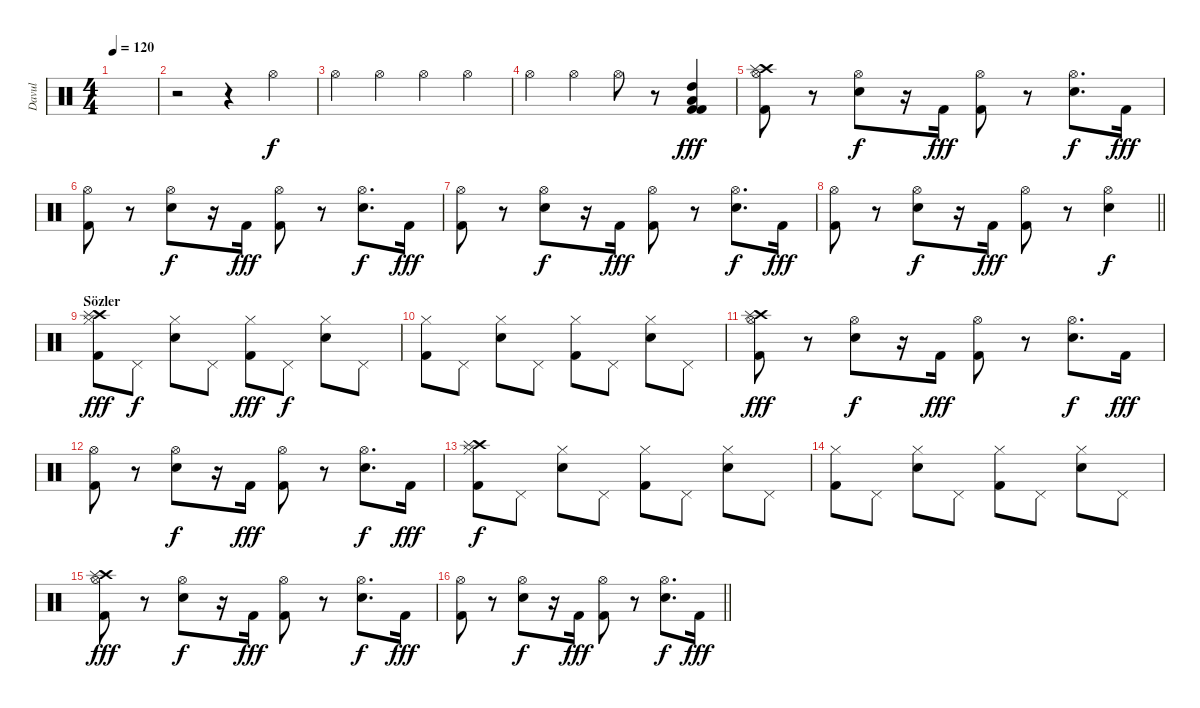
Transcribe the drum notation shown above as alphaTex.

\track ("Davul" "Davul") {instrument percussion}
\staff {score}
\articulation defaults
\ts (4 4)
\tempo 120
\clef neutral
\ks c
|
r.2 r.4 "Hi-Hat (open)".4 |
"Hi-Hat (open)".4 "Hi-Hat (open)".4 "Hi-Hat (open)".4 "Hi-Hat (open)".4 |
"Hi-Hat (open)".4 "Hi-Hat (open)".4 "Hi-Hat (open)".8 r.8 ("Kick (hit) 2" "Kick (hit) 2" "Low Tom (hit)" "High Tom (hit)").4{dy fff} |
("Hi-Hat (open)" "Kick (hit) 2" "Crash high (hit)" "Splash (hit)").8 r.8 ("Hi-Hat (open)" "Snare (hit) 2").8{dy f} r.16 "Kick (hit) 2".16{dy fff} ("Hi-Hat (open)" "Kick (hit) 2").8 r.8 ("Hi-Hat (open)" "Snare (hit) 2").8{d dy f} "Kick (hit) 2".16{dy fff} |
("Hi-Hat (open)" "Kick (hit) 2").8 r.8 ("Hi-Hat (open)" "Snare (hit) 2").8{dy f} r.16 "Kick (hit) 2".16{dy fff} ("Hi-Hat (open)" "Kick (hit) 2").8 r.8 ("Hi-Hat (open)" "Snare (hit) 2").8{d dy f} "Kick (hit) 2".16{dy fff} |
("Hi-Hat (open)" "Kick (hit) 2").8 r.8 ("Hi-Hat (open)" "Snare (hit) 2").8{dy f} r.16 "Kick (hit) 2".16{dy fff} ("Hi-Hat (open)" "Kick (hit) 2").8 r.8 ("Hi-Hat (open)" "Snare (hit) 2").8{d dy f} "Kick (hit) 2".16{dy fff} |
\barLineRight lightlight
("Hi-Hat (open)" "Kick (hit) 2").8 r.8 ("Hi-Hat (open)" "Snare (hit) 2").8{dy f} r.16 "Kick (hit) 2".16{dy fff} ("Hi-Hat (open)" "Kick (hit) 2").8 r.8 ("Hi-Hat (open)" "Snare (hit) 2").4{dy f} |
\section ("" "Sözler")
("Hi-Hat (closed)" "Kick (hit) 2" "Crash high (hit)" "Splash (hit)").8{dy fff} "Pedal Hi-Hat (hit)".8{dy f} ("Hi-Hat (closed)" "Snare (hit) 2").8 "Pedal Hi-Hat (hit)".8 ("Hi-Hat (closed)" "Kick (hit) 2").8{dy fff} "Pedal Hi-Hat (hit)".8{dy f} ("Hi-Hat (closed)" "Snare (hit) 2").8 "Pedal Hi-Hat (hit)".8 |
("Hi-Hat (closed)" "Kick (hit) 2").8 "Pedal Hi-Hat (hit)".8 ("Hi-Hat (closed)" "Snare (hit) 2").8 "Pedal Hi-Hat (hit)".8 ("Hi-Hat (closed)" "Kick (hit) 2").8 "Pedal Hi-Hat (hit)".8 ("Hi-Hat (closed)" "Snare (hit) 2").8 "Pedal Hi-Hat (hit)".8 |
("Hi-Hat (open)" "Kick (hit) 2" "Crash high (hit)" "Splash (hit)").8{dy fff} r.8 ("Hi-Hat (open)" "Snare (hit) 2").8{dy f} r.16 "Kick (hit) 2".16{dy fff} ("Hi-Hat (open)" "Kick (hit) 2").8 r.8 ("Hi-Hat (open)" "Snare (hit) 2").8{d dy f} "Kick (hit) 2".16{dy fff} |
("Hi-Hat (open)" "Kick (hit) 2").8 r.8 ("Hi-Hat (open)" "Snare (hit) 2").8{dy f} r.16 "Kick (hit) 2".16{dy fff} ("Hi-Hat (open)" "Kick (hit) 2").8 r.8 ("Hi-Hat (open)" "Snare (hit) 2").8{d dy f} "Kick (hit) 2".16{dy fff} |
("Hi-Hat (closed)" "Kick (hit) 2" "Crash high (hit)" "Splash (hit)").8{dy f} "Pedal Hi-Hat (hit)".8 ("Hi-Hat (closed)" "Snare (hit) 2").8 "Pedal Hi-Hat (hit)".8 ("Hi-Hat (closed)" "Kick (hit) 2").8 "Pedal Hi-Hat (hit)".8 ("Hi-Hat (closed)" "Snare (hit) 2").8 "Pedal Hi-Hat (hit)".8 |
("Hi-Hat (closed)" "Kick (hit) 2").8 "Pedal Hi-Hat (hit)".8 ("Hi-Hat (closed)" "Snare (hit) 2").8 "Pedal Hi-Hat (hit)".8 ("Hi-Hat (closed)" "Kick (hit) 2").8 "Pedal Hi-Hat (hit)".8 ("Hi-Hat (closed)" "Snare (hit) 2").8 "Pedal Hi-Hat (hit)".8 |
("Hi-Hat (open)" "Kick (hit) 2" "Crash high (hit)" "Splash (hit)").8{dy fff} r.8 ("Hi-Hat (open)" "Snare (hit) 2").8{dy f} r.16 "Kick (hit) 2".16{dy fff} ("Hi-Hat (open)" "Kick (hit) 2").8 r.8 ("Hi-Hat (open)" "Snare (hit) 2").8{d dy f} "Kick (hit) 2".16{dy fff} |
\barLineRight lightlight
("Hi-Hat (open)" "Kick (hit) 2").8 r.8 ("Hi-Hat (open)" "Snare (hit) 2").8{dy f} r.16 "Kick (hit) 2".16{dy fff} ("Hi-Hat (open)" "Kick (hit) 2").8 r.8 ("Hi-Hat (open)" "Snare (hit) 2").8{d dy f} "Kick (hit) 2".16{dy fff}
